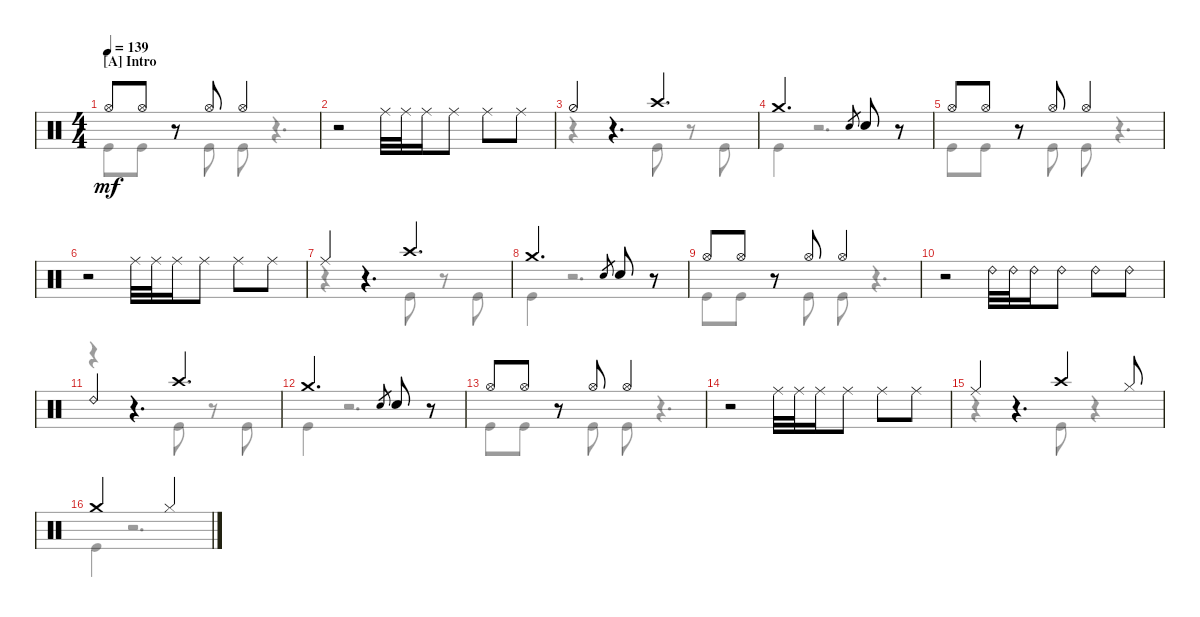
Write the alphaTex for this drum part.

\defaultSystemsLayout 4
\bracketExtendMode groupsimilarinstruments
\singleTrackTrackNamePolicy hidden
\multiTrackTrackNamePolicy hidden
\firstSystemTrackNameOrientation horizontal
\otherSystemsTrackNameOrientation horizontal
\track ("Nicko McBrain" "Drums") {instrument percussion}
\staff {score}
\articulation defaults
\voice
\ts (4 4)
\section ("A" "Intro")
\tempo 139
\clef neutral
\scale
1.05675
\ks c "Hi-Hat (open)".8{dy mf} "Hi-Hat (open)".8
r.8 "Hi-Hat (open)".8 "Hi-Hat (open)".2 |
\scale
0.943253 r.2 "Ride (middle)".32 "Ride (middle)".32 "Ride (middle)".16 "Ride (middle)".8 "Ride (middle)".8 "Ride (middle)".8 |
\scale
1.02648 "Hi-Hat (half)".4 r.4{d} "Crash high (hit)".4{d} |
\scale
0.973518 "Crash medium (hit)".2{d} "Snare (hit) 2".8{gr} "Snare (hit) 2".8 r.8 |
\scale
1.02648 "Hi-Hat (open)".8 "Hi-Hat (open)".8 r.8 "Hi-Hat (open)".8 "Hi-Hat (open)".2 |
\scale
0.973518 r.2 "Ride (middle)".32 "Ride (middle)".32 "Ride (middle)".16 "Ride (middle)".8 "Ride (middle)".8 "Ride (middle)".8 |
\scale
1.02648 "Ride (middle)".4 r.4{d} "Crash high (hit)".4{d} |
\scale
0.973518 "Crash medium (hit)".2{d} "Snare (hit) 2".8{gr} "Snare (hit) 2".8 r.8 |
\scale
1.02648 "Hi-Hat (open)".8 "Hi-Hat (open)".8 r.8 "Hi-Hat (open)".8 "Hi-Hat (open)".2 |
\scale
0.973518 r.2 "Ride (bell) 2".32 "Ride (bell) 2".32 "Ride (bell) 2".16 "Ride (bell) 2".8 "Ride (bell) 2".8 "Ride (bell) 2".8 |
\scale
1.02648 "Ride (bell) 2".4 r.4{d} "Crash high (hit)".4{d} |
\scale
0.973518 "Crash medium (hit)".2{d} "Snare (hit) 2".8{gr} "Snare (hit) 2".8 r.8 |
\scale
1.02648 "Hi-Hat (open)".8 "Hi-Hat (open)".8 r.8 "Hi-Hat (open)".8 "Hi-Hat (open)".2 |
\scale
0.973518 r.2 "Ride (middle)".32 "Ride (middle)".32 "Ride (middle)".16 "Ride (middle)".8 "Ride (middle)".8 "Ride (middle)".8 |
\scale
1.02648 "Ride (middle)".4 r.4{d} "Crash high (hit)".4 "Hi-Hat (closed)".8 |
\scale
0.973518 "Crash medium (hit)".2 "Hi-Hat (closed)".2
\voice
\clef neutral
\ottava regular
\simile none
\scale
1.05675
\ks c "Kick (hit)".8{dy mf} "Kick (hit)".8
r.8 "Kick (hit)".8 "Kick (hit)".8 r.4{d} |
\scale
0.943253 |
\scale
1.02648 r.4 r.4{d} "Kick (hit)".8 r.8 "Kick (hit)".8 |
\scale
0.973518 "Kick (hit)".4 r.2{d} |
\scale
1.02648 "Kick (hit)".8 "Kick (hit)".8 r.8 "Kick (hit)".8 "Kick (hit)".8 r.4{d} |
\scale
0.973518 |
\scale
1.02648 r.4 r.4{d} "Kick (hit)".8 r.8 "Kick (hit)".8 |
\scale
0.973518 "Kick (hit)".4 r.2{d} |
\scale
1.02648 "Kick (hit)".8 "Kick (hit)".8 r.8 "Kick (hit)".8 "Kick (hit)".8 r.4{d} |
\scale
0.973518 |
\scale
1.02648 r.4 r.4{d} "Kick (hit)".8 r.8 "Kick (hit)".8 |
\scale
0.973518 "Kick (hit)".4 r.2{d} |
\scale
1.02648 "Kick (hit)".8 "Kick (hit)".8 r.8 "Kick (hit)".8 "Kick (hit)".8 r.4{d} |
\scale
0.973518 |
\scale
1.02648 r.4 r.4{d} "Kick (hit)".8 r.4 |
\scale
0.973518 "Kick (hit)".4 r.2{d}
